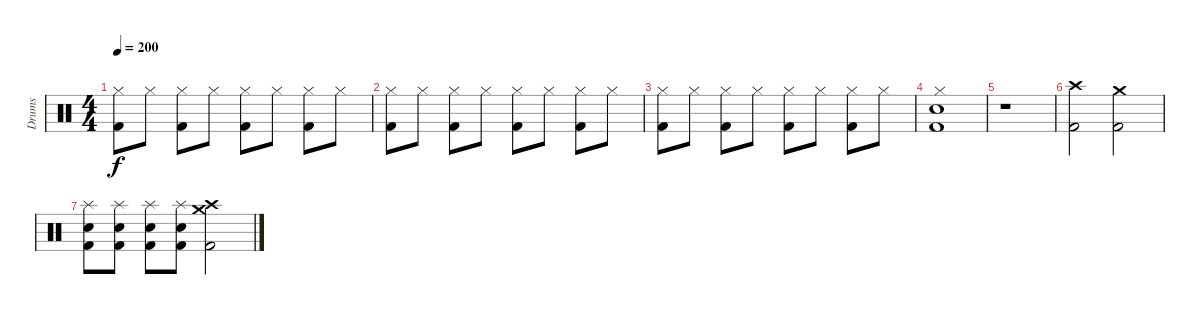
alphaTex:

\track ("Drums" "Drums") {instrument percussion}
\staff {score}
\articulation defaults
\ts (4 4)
\tempo 200
\clef neutral
\ks c
("Kick (hit) 2" "Hi-Hat (closed)").8{dy f} "Hi-Hat (closed)".8 ("Kick (hit) 2" "Hi-Hat (closed)").8 "Hi-Hat (closed)".8 ("Kick (hit) 2" "Hi-Hat (closed)").8 "Hi-Hat (closed)".8 ("Kick (hit) 2" "Hi-Hat (closed)").8 "Hi-Hat (closed)".8 |
("Kick (hit) 2" "Hi-Hat (closed)").8 "Hi-Hat (closed)".8 ("Kick (hit) 2" "Hi-Hat (closed)").8 "Hi-Hat (closed)".8 ("Kick (hit) 2" "Hi-Hat (closed)").8 "Hi-Hat (closed)".8 ("Kick (hit) 2" "Hi-Hat (closed)").8 "Hi-Hat (closed)".8 |
("Kick (hit) 2" "Hi-Hat (closed)").8 "Hi-Hat (closed)".8 ("Kick (hit) 2" "Hi-Hat (closed)").8 "Hi-Hat (closed)".8 ("Kick (hit) 2" "Hi-Hat (closed)").8 "Hi-Hat (closed)".8 ("Kick (hit) 2" "Hi-Hat (closed)").8 "Hi-Hat (closed)".8 |
\section ("" "")
("Kick (hit) 2" "Snare (hit) 2" "Hi-Hat (closed)").1 |
r.1 |
("Kick (hit) 2" "Crash high (hit)").2 ("Kick (hit) 2" "Crash medium (hit)").2 |
("Kick (hit) 2" "Snare (hit) 2" "Splash (hit)").8 ("Kick (hit) 2" "Snare (hit) 2" "Splash (hit)").8 ("Kick (hit) 2" "Snare (hit) 2" "Splash (hit)").8 ("Kick (hit) 2" "Snare (hit) 2" "Splash (hit)").8 ("Kick (hit) 2" "Crash high (hit)" "Crash medium (hit)").2
